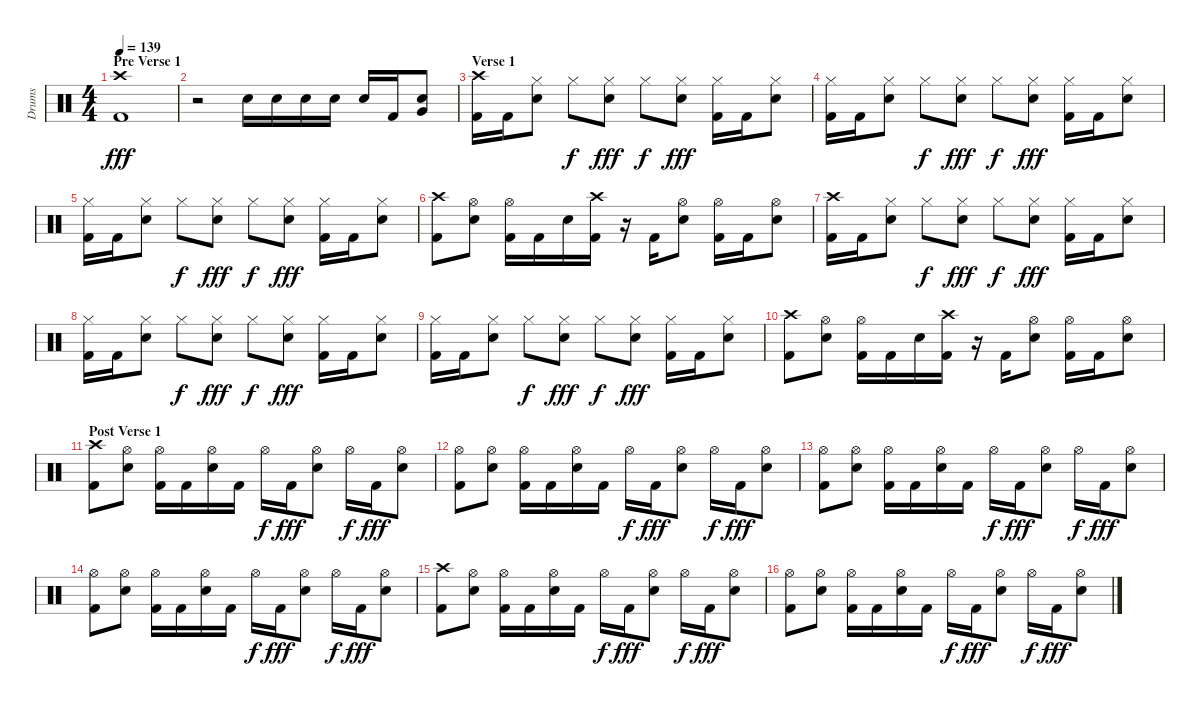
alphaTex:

\track ("Drums" "Drums") {instrument percussion}
\staff {score}
\articulation defaults
\ts (4 4)
\section ("" "Pre Verse 1")
\tempo 139
\clef neutral
\ks c
("Crash high (hit)" "Kick (hit) 2").1{dy fff} |
r.2 "Electric Snare (hit)".16 "Electric Snare (hit)".16 "Electric Snare (hit)".16 "Electric Snare (hit)".16 "Electric Snare (hit)".16 "Kick (hit) 2".16 ("Electric Snare (hit)" "Very Low Tom (hit)").8 |
\section ("" "Verse 1")
("Crash high (hit)" "Kick (hit) 2").16 "Kick (hit) 2".16 ("Hi-Hat (closed)" "Electric Snare (hit)").8 "Hi-Hat (closed)".8{dy f} ("Hi-Hat (closed)" "Electric Snare (hit)").8{dy fff} "Hi-Hat (closed)".8{dy f} ("Hi-Hat (closed)" "Electric Snare (hit)").8{dy fff} ("Hi-Hat (closed)" "Kick (hit) 2").16 "Kick (hit) 2".16 ("Hi-Hat (closed)" "Electric Snare (hit)").8 |
("Hi-Hat (closed)" "Kick (hit) 2").16 "Kick (hit) 2".16 ("Hi-Hat (closed)" "Electric Snare (hit)").8 "Hi-Hat (closed)".8{dy f} ("Hi-Hat (closed)" "Electric Snare (hit)").8{dy fff} "Hi-Hat (closed)".8{dy f} ("Hi-Hat (closed)" "Electric Snare (hit)").8{dy fff} ("Hi-Hat (closed)" "Kick (hit) 2").16 "Kick (hit) 2".16 ("Hi-Hat (closed)" "Electric Snare (hit)").8 |
("Hi-Hat (closed)" "Kick (hit) 2").16 "Kick (hit) 2".16 ("Hi-Hat (closed)" "Electric Snare (hit)").8 "Hi-Hat (closed)".8{dy f} ("Hi-Hat (closed)" "Electric Snare (hit)").8{dy fff} "Hi-Hat (closed)".8{dy f} ("Hi-Hat (closed)" "Electric Snare (hit)").8{dy fff} ("Hi-Hat (closed)" "Kick (hit) 2").16 "Kick (hit) 2".16 ("Hi-Hat (closed)" "Electric Snare (hit)").8 |
("Crash high (hit)" "Kick (hit) 2").8 ("Hi-Hat (open)" "Electric Snare (hit)").8 ("Hi-Hat (open)" "Kick (hit) 2").16 "Kick (hit) 2".16 "Electric Snare (hit)".16 ("Crash high (hit)" "Kick (hit) 2").16 r.16 "Kick (hit) 2".16 ("Hi-Hat (open)" "Electric Snare (hit)").8 ("Hi-Hat (open)" "Kick (hit) 2").16 "Kick (hit) 2".16 ("Hi-Hat (open)" "Electric Snare (hit)").8 |
("Crash high (hit)" "Kick (hit) 2").16 "Kick (hit) 2".16 ("Hi-Hat (closed)" "Electric Snare (hit)").8 "Hi-Hat (closed)".8{dy f} ("Hi-Hat (closed)" "Electric Snare (hit)").8{dy fff} "Hi-Hat (closed)".8{dy f} ("Hi-Hat (closed)" "Electric Snare (hit)").8{dy fff} ("Hi-Hat (closed)" "Kick (hit) 2").16 "Kick (hit) 2".16 ("Hi-Hat (closed)" "Electric Snare (hit)").8 |
("Hi-Hat (closed)" "Kick (hit) 2").16 "Kick (hit) 2".16 ("Hi-Hat (closed)" "Electric Snare (hit)").8 "Hi-Hat (closed)".8{dy f} ("Hi-Hat (closed)" "Electric Snare (hit)").8{dy fff} "Hi-Hat (closed)".8{dy f} ("Hi-Hat (closed)" "Electric Snare (hit)").8{dy fff} ("Hi-Hat (closed)" "Kick (hit) 2").16 "Kick (hit) 2".16 ("Hi-Hat (closed)" "Electric Snare (hit)").8 |
("Hi-Hat (closed)" "Kick (hit) 2").16 "Kick (hit) 2".16 ("Hi-Hat (closed)" "Electric Snare (hit)").8 "Hi-Hat (closed)".8{dy f} ("Hi-Hat (closed)" "Electric Snare (hit)").8{dy fff} "Hi-Hat (closed)".8{dy f} ("Hi-Hat (closed)" "Electric Snare (hit)").8{dy fff} ("Hi-Hat (closed)" "Kick (hit) 2").16 "Kick (hit) 2".16 ("Hi-Hat (closed)" "Electric Snare (hit)").8 |
("Crash high (hit)" "Kick (hit) 2").8 ("Hi-Hat (open)" "Electric Snare (hit)").8 ("Hi-Hat (open)" "Kick (hit) 2").16 "Kick (hit) 2".16 "Electric Snare (hit)".16 ("Crash high (hit)" "Kick (hit) 2").16 r.16 "Kick (hit) 2".16 ("Hi-Hat (open)" "Electric Snare (hit)").8 ("Hi-Hat (open)" "Kick (hit) 2").16 "Kick (hit) 2".16 ("Hi-Hat (open)" "Electric Snare (hit)").8 |
\section ("" "Post Verse 1")
("Crash high (hit)" "Kick (hit) 2").8 ("Hi-Hat (open)" "Electric Snare (hit)").8 ("Hi-Hat (open)" "Kick (hit) 2").16 "Kick (hit) 2".16 ("Hi-Hat (open)" "Electric Snare (hit)").16 "Kick (hit) 2".16 "Hi-Hat (open)".16{dy f} "Kick (hit) 2".16{dy fff} ("Hi-Hat (open)" "Electric Snare (hit)").8 "Hi-Hat (open)".16{dy f} "Kick (hit) 2".16{dy fff} ("Hi-Hat (open)" "Electric Snare (hit)").8 |
("Hi-Hat (open)" "Kick (hit) 2").8 ("Hi-Hat (open)" "Electric Snare (hit)").8 ("Hi-Hat (open)" "Kick (hit) 2").16 "Kick (hit) 2".16 ("Hi-Hat (open)" "Electric Snare (hit)").16 "Kick (hit) 2".16 "Hi-Hat (open)".16{dy f} "Kick (hit) 2".16{dy fff} ("Hi-Hat (open)" "Electric Snare (hit)").8 "Hi-Hat (open)".16{dy f} "Kick (hit) 2".16{dy fff} ("Hi-Hat (open)" "Electric Snare (hit)").8 |
("Hi-Hat (open)" "Kick (hit) 2").8 ("Hi-Hat (open)" "Electric Snare (hit)").8 ("Hi-Hat (open)" "Kick (hit) 2").16 "Kick (hit) 2".16 ("Hi-Hat (open)" "Electric Snare (hit)").16 "Kick (hit) 2".16 "Hi-Hat (open)".16{dy f} "Kick (hit) 2".16{dy fff} ("Hi-Hat (open)" "Electric Snare (hit)").8 "Hi-Hat (open)".16{dy f} "Kick (hit) 2".16{dy fff} ("Hi-Hat (open)" "Electric Snare (hit)").8 |
("Hi-Hat (open)" "Kick (hit) 2").8 ("Hi-Hat (open)" "Electric Snare (hit)").8 ("Hi-Hat (open)" "Kick (hit) 2").16 "Kick (hit) 2".16 ("Hi-Hat (open)" "Electric Snare (hit)").16 "Kick (hit) 2".16 "Hi-Hat (open)".16{dy f} "Kick (hit) 2".16{dy fff} ("Hi-Hat (open)" "Electric Snare (hit)").8 "Hi-Hat (open)".16{dy f} "Kick (hit) 2".16{dy fff} ("Hi-Hat (open)" "Electric Snare (hit)").8 |
("Crash high (hit)" "Kick (hit) 2").8 ("Hi-Hat (open)" "Electric Snare (hit)").8 ("Hi-Hat (open)" "Kick (hit) 2").16 "Kick (hit) 2".16 ("Hi-Hat (open)" "Electric Snare (hit)").16 "Kick (hit) 2".16 "Hi-Hat (open)".16{dy f} "Kick (hit) 2".16{dy fff} ("Hi-Hat (open)" "Electric Snare (hit)").8 "Hi-Hat (open)".16{dy f} "Kick (hit) 2".16{dy fff} ("Hi-Hat (open)" "Electric Snare (hit)").8 |
("Hi-Hat (open)" "Kick (hit) 2").8 ("Hi-Hat (open)" "Electric Snare (hit)").8 ("Hi-Hat (open)" "Kick (hit) 2").16 "Kick (hit) 2".16 ("Hi-Hat (open)" "Electric Snare (hit)").16 "Kick (hit) 2".16 "Hi-Hat (open)".16{dy f} "Kick (hit) 2".16{dy fff} ("Hi-Hat (open)" "Electric Snare (hit)").8 "Hi-Hat (open)".16{dy f} "Kick (hit) 2".16{dy fff} ("Hi-Hat (open)" "Electric Snare (hit)").8
